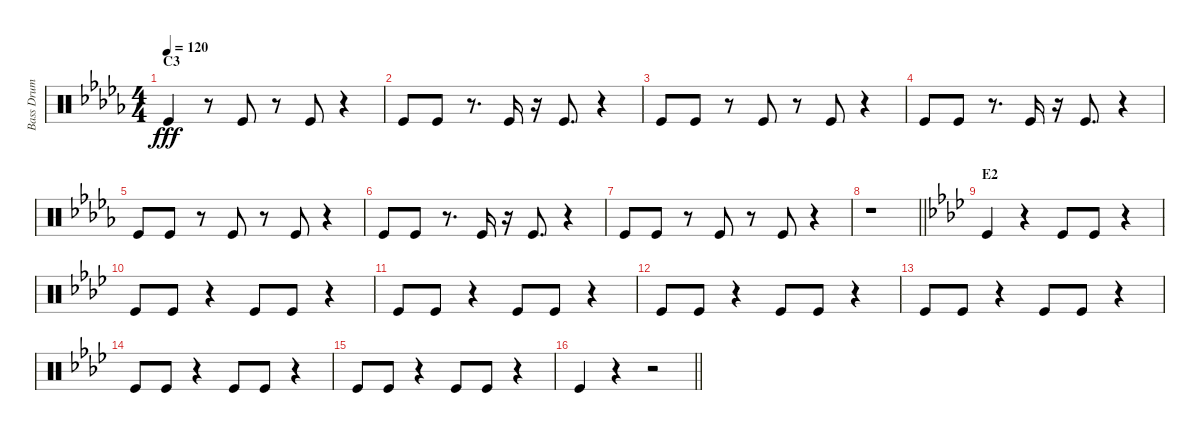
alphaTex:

\track ("Bass Drum" "Bass Drum") {instrument percussion}
\staff {score}
\articulation defaults
\ts (4 4)
\section ("" "C3")
\tempo 120
\clef neutral
\ks db "Kick (hit)".4{dy fff}
r.8 "Kick (hit)".8 r.8 "Kick (hit)".8 r.4 |
"Kick (hit)".8 "Kick (hit)".8 r.8{d} "Kick (hit)".16 r.16 "Kick (hit)".8{d} r.4 |
"Kick (hit)".8 "Kick (hit)".8 r.8 "Kick (hit)".8 r.8 "Kick (hit)".8 r.4 |
"Kick (hit)".8 "Kick (hit)".8 r.8{d} "Kick (hit)".16 r.16 "Kick (hit)".8{d} r.4 |
"Kick (hit)".8 "Kick (hit)".8 r.8 "Kick (hit)".8 r.8 "Kick (hit)".8 r.4 |
"Kick (hit)".8 "Kick (hit)".8 r.8{d} "Kick (hit)".16 r.16 "Kick (hit)".8{d} r.4 |
"Kick (hit)".8 "Kick (hit)".8 r.8 "Kick (hit)".8 r.8 "Kick (hit)".8 r.4 |
\barLineRight lightlight
r.1 |
\section ("" "E2")
\ks ab "Kick (hit)".4
r.4 "Kick (hit)".8 "Kick (hit)".8 r.4 |
"Kick (hit)".8 "Kick (hit)".8 r.4 "Kick (hit)".8 "Kick (hit)".8 r.4 |
"Kick (hit)".8 "Kick (hit)".8 r.4 "Kick (hit)".8 "Kick (hit)".8 r.4 |
"Kick (hit)".8 "Kick (hit)".8 r.4 "Kick (hit)".8 "Kick (hit)".8 r.4 |
"Kick (hit)".8 "Kick (hit)".8 r.4 "Kick (hit)".8 "Kick (hit)".8 r.4 |
"Kick (hit)".8 "Kick (hit)".8 r.4 "Kick (hit)".8 "Kick (hit)".8 r.4 |
"Kick (hit)".8 "Kick (hit)".8 r.4 "Kick (hit)".8 "Kick (hit)".8 r.4 |
\barLineRight lightlight "Kick (hit)".4
r.4 r.2
